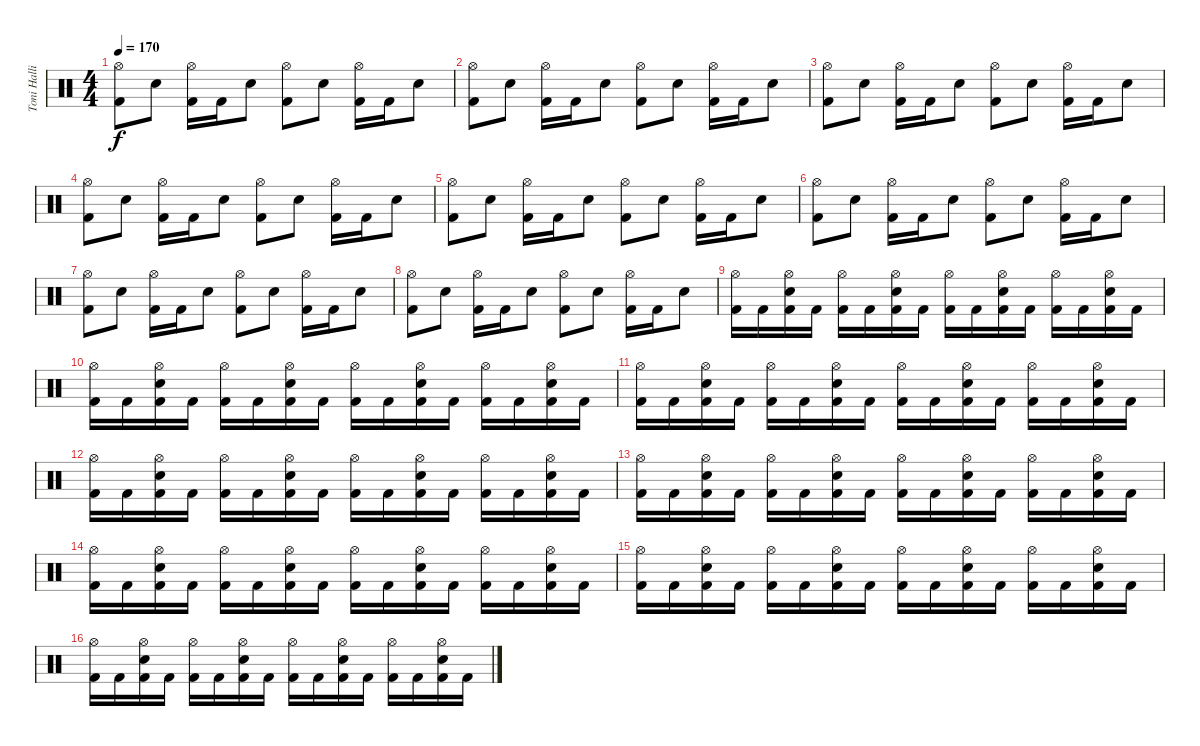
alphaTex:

\track ("Toni Hallio" "Toni Halli") {instrument percussion}
\staff {score}
\articulation defaults
\ts (4 4)
\tempo 170
\clef neutral
\ks c
("Hi-Hat (open)" "Kick (hit) 2").8{dy f} "Snare (hit) 2".8 ("Hi-Hat (open)" "Kick (hit) 2").16 "Kick (hit) 2".16 "Snare (hit) 2".8 ("Hi-Hat (open)" "Kick (hit) 2").8 "Snare (hit) 2".8 ("Hi-Hat (open)" "Kick (hit) 2").16 "Kick (hit) 2".16 "Snare (hit) 2".8 |
("Hi-Hat (open)" "Kick (hit) 2").8 "Snare (hit) 2".8 ("Hi-Hat (open)" "Kick (hit) 2").16 "Kick (hit) 2".16 "Snare (hit) 2".8 ("Hi-Hat (open)" "Kick (hit) 2").8 "Snare (hit) 2".8 ("Hi-Hat (open)" "Kick (hit) 2").16 "Kick (hit) 2".16 "Snare (hit) 2".8 |
("Hi-Hat (open)" "Kick (hit) 2").8 "Snare (hit) 2".8 ("Hi-Hat (open)" "Kick (hit) 2").16 "Kick (hit) 2".16 "Snare (hit) 2".8 ("Hi-Hat (open)" "Kick (hit) 2").8 "Snare (hit) 2".8 ("Hi-Hat (open)" "Kick (hit) 2").16 "Kick (hit) 2".16 "Snare (hit) 2".8 |
("Hi-Hat (open)" "Kick (hit) 2").8 "Snare (hit) 2".8 ("Hi-Hat (open)" "Kick (hit) 2").16 "Kick (hit) 2".16 "Snare (hit) 2".8 ("Hi-Hat (open)" "Kick (hit) 2").8 "Snare (hit) 2".8 ("Hi-Hat (open)" "Kick (hit) 2").16 "Kick (hit) 2".16 "Snare (hit) 2".8 |
("Hi-Hat (open)" "Kick (hit) 2").8 "Snare (hit) 2".8 ("Hi-Hat (open)" "Kick (hit) 2").16 "Kick (hit) 2".16 "Snare (hit) 2".8 ("Hi-Hat (open)" "Kick (hit) 2").8 "Snare (hit) 2".8 ("Hi-Hat (open)" "Kick (hit) 2").16 "Kick (hit) 2".16 "Snare (hit) 2".8 |
("Hi-Hat (open)" "Kick (hit) 2").8 "Snare (hit) 2".8 ("Hi-Hat (open)" "Kick (hit) 2").16 "Kick (hit) 2".16 "Snare (hit) 2".8 ("Hi-Hat (open)" "Kick (hit) 2").8 "Snare (hit) 2".8 ("Hi-Hat (open)" "Kick (hit) 2").16 "Kick (hit) 2".16 "Snare (hit) 2".8 |
("Hi-Hat (open)" "Kick (hit) 2").8 "Snare (hit) 2".8 ("Hi-Hat (open)" "Kick (hit) 2").16 "Kick (hit) 2".16 "Snare (hit) 2".8 ("Hi-Hat (open)" "Kick (hit) 2").8 "Snare (hit) 2".8 ("Hi-Hat (open)" "Kick (hit) 2").16 "Kick (hit) 2".16 "Snare (hit) 2".8 |
("Hi-Hat (open)" "Kick (hit) 2").8 "Snare (hit) 2".8 ("Hi-Hat (open)" "Kick (hit) 2").16 "Kick (hit) 2".16 "Snare (hit) 2".8 ("Hi-Hat (open)" "Kick (hit) 2").8 "Snare (hit) 2".8 ("Hi-Hat (open)" "Kick (hit) 2").16 "Kick (hit) 2".16 "Snare (hit) 2".8 |
("Hi-Hat (open)" "Kick (hit) 2").16 "Kick (hit) 2".16 ("Hi-Hat (open)" "Snare (hit) 2" "Kick (hit) 2").16 "Kick (hit) 2".16 ("Hi-Hat (open)" "Kick (hit) 2").16 "Kick (hit) 2".16 ("Hi-Hat (open)" "Snare (hit) 2" "Kick (hit) 2").16 "Kick (hit) 2".16 ("Hi-Hat (open)" "Kick (hit) 2").16 "Kick (hit) 2".16 ("Hi-Hat (open)" "Snare (hit) 2" "Kick (hit) 2").16 "Kick (hit) 2".16 ("Hi-Hat (open)" "Kick (hit) 2").16 "Kick (hit) 2".16 ("Hi-Hat (open)" "Snare (hit) 2" "Kick (hit) 2").16 "Kick (hit) 2".16 |
("Hi-Hat (open)" "Kick (hit) 2").16 "Kick (hit) 2".16 ("Hi-Hat (open)" "Snare (hit) 2" "Kick (hit) 2").16 "Kick (hit) 2".16 ("Hi-Hat (open)" "Kick (hit) 2").16 "Kick (hit) 2".16 ("Hi-Hat (open)" "Snare (hit) 2" "Kick (hit) 2").16 "Kick (hit) 2".16 ("Hi-Hat (open)" "Kick (hit) 2").16 "Kick (hit) 2".16 ("Hi-Hat (open)" "Snare (hit) 2" "Kick (hit) 2").16 "Kick (hit) 2".16 ("Hi-Hat (open)" "Kick (hit) 2").16 "Kick (hit) 2".16 ("Hi-Hat (open)" "Snare (hit) 2" "Kick (hit) 2").16 "Kick (hit) 2".16 |
("Hi-Hat (open)" "Kick (hit) 2").16 "Kick (hit) 2".16 ("Hi-Hat (open)" "Snare (hit) 2" "Kick (hit) 2").16 "Kick (hit) 2".16 ("Hi-Hat (open)" "Kick (hit) 2").16 "Kick (hit) 2".16 ("Hi-Hat (open)" "Snare (hit) 2" "Kick (hit) 2").16 "Kick (hit) 2".16 ("Hi-Hat (open)" "Kick (hit) 2").16 "Kick (hit) 2".16 ("Hi-Hat (open)" "Snare (hit) 2" "Kick (hit) 2").16 "Kick (hit) 2".16 ("Hi-Hat (open)" "Kick (hit) 2").16 "Kick (hit) 2".16 ("Hi-Hat (open)" "Snare (hit) 2" "Kick (hit) 2").16 "Kick (hit) 2".16 |
("Hi-Hat (open)" "Kick (hit) 2").16 "Kick (hit) 2".16 ("Hi-Hat (open)" "Snare (hit) 2" "Kick (hit) 2").16 "Kick (hit) 2".16 ("Hi-Hat (open)" "Kick (hit) 2").16 "Kick (hit) 2".16 ("Hi-Hat (open)" "Snare (hit) 2" "Kick (hit) 2").16 "Kick (hit) 2".16 ("Hi-Hat (open)" "Kick (hit) 2").16 "Kick (hit) 2".16 ("Hi-Hat (open)" "Snare (hit) 2" "Kick (hit) 2").16 "Kick (hit) 2".16 ("Hi-Hat (open)" "Kick (hit) 2").16 "Kick (hit) 2".16 ("Hi-Hat (open)" "Snare (hit) 2" "Kick (hit) 2").16 "Kick (hit) 2".16 |
("Hi-Hat (open)" "Kick (hit) 2").16 "Kick (hit) 2".16 ("Hi-Hat (open)" "Snare (hit) 2" "Kick (hit) 2").16 "Kick (hit) 2".16 ("Hi-Hat (open)" "Kick (hit) 2").16 "Kick (hit) 2".16 ("Hi-Hat (open)" "Snare (hit) 2" "Kick (hit) 2").16 "Kick (hit) 2".16 ("Hi-Hat (open)" "Kick (hit) 2").16 "Kick (hit) 2".16 ("Hi-Hat (open)" "Snare (hit) 2" "Kick (hit) 2").16 "Kick (hit) 2".16 ("Hi-Hat (open)" "Kick (hit) 2").16 "Kick (hit) 2".16 ("Hi-Hat (open)" "Snare (hit) 2" "Kick (hit) 2").16 "Kick (hit) 2".16 |
("Hi-Hat (open)" "Kick (hit) 2").16 "Kick (hit) 2".16 ("Hi-Hat (open)" "Snare (hit) 2" "Kick (hit) 2").16 "Kick (hit) 2".16 ("Hi-Hat (open)" "Kick (hit) 2").16 "Kick (hit) 2".16 ("Hi-Hat (open)" "Snare (hit) 2" "Kick (hit) 2").16 "Kick (hit) 2".16 ("Hi-Hat (open)" "Kick (hit) 2").16 "Kick (hit) 2".16 ("Hi-Hat (open)" "Snare (hit) 2" "Kick (hit) 2").16 "Kick (hit) 2".16 ("Hi-Hat (open)" "Kick (hit) 2").16 "Kick (hit) 2".16 ("Hi-Hat (open)" "Snare (hit) 2" "Kick (hit) 2").16 "Kick (hit) 2".16 |
("Hi-Hat (open)" "Kick (hit) 2").16 "Kick (hit) 2".16 ("Hi-Hat (open)" "Snare (hit) 2" "Kick (hit) 2").16 "Kick (hit) 2".16 ("Hi-Hat (open)" "Kick (hit) 2").16 "Kick (hit) 2".16 ("Hi-Hat (open)" "Snare (hit) 2" "Kick (hit) 2").16 "Kick (hit) 2".16 ("Hi-Hat (open)" "Kick (hit) 2").16 "Kick (hit) 2".16 ("Hi-Hat (open)" "Snare (hit) 2" "Kick (hit) 2").16 "Kick (hit) 2".16 ("Hi-Hat (open)" "Kick (hit) 2").16 "Kick (hit) 2".16 ("Hi-Hat (open)" "Snare (hit) 2" "Kick (hit) 2").16 "Kick (hit) 2".16 |
("Hi-Hat (open)" "Kick (hit) 2").16 "Kick (hit) 2".16 ("Hi-Hat (open)" "Snare (hit) 2" "Kick (hit) 2").16 "Kick (hit) 2".16 ("Hi-Hat (open)" "Kick (hit) 2").16 "Kick (hit) 2".16 ("Hi-Hat (open)" "Snare (hit) 2" "Kick (hit) 2").16 "Kick (hit) 2".16 ("Hi-Hat (open)" "Kick (hit) 2").16 "Kick (hit) 2".16 ("Hi-Hat (open)" "Snare (hit) 2" "Kick (hit) 2").16 "Kick (hit) 2".16 ("Hi-Hat (open)" "Kick (hit) 2").16 "Kick (hit) 2".16 ("Hi-Hat (open)" "Snare (hit) 2" "Kick (hit) 2").16 "Kick (hit) 2".16
